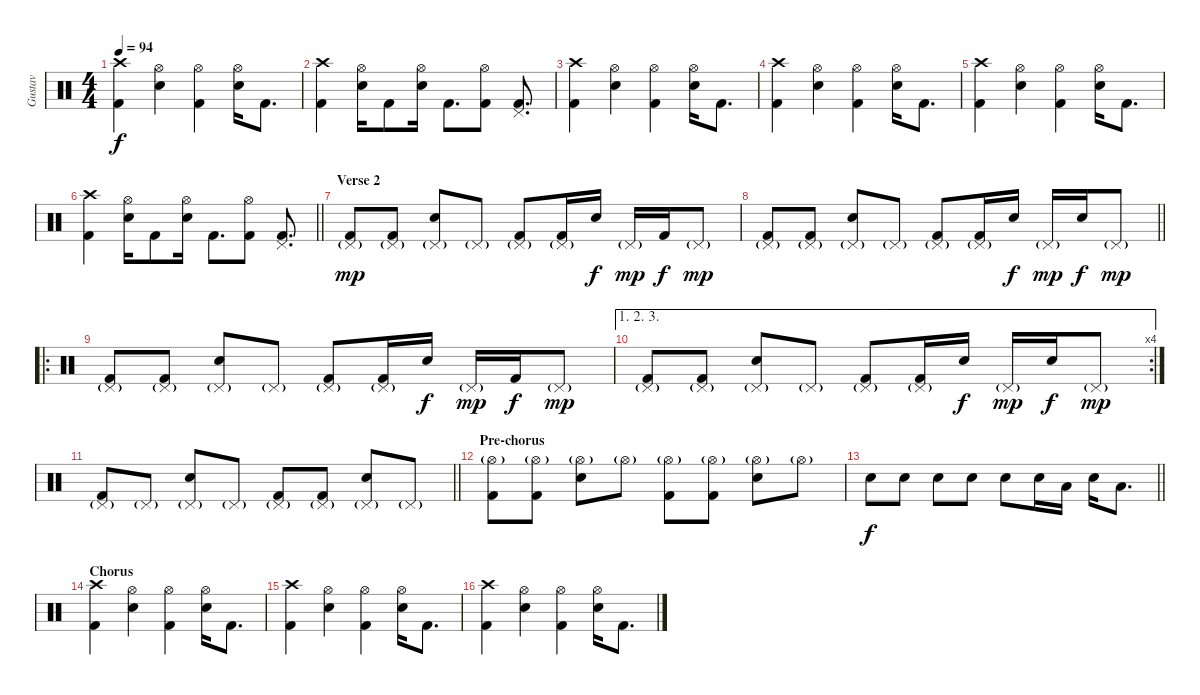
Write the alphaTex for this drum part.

\track ("Gustav" "Gustav") {instrument percussion}
\staff {score}
\articulation defaults
\ts (4 4)
\tempo 94
\clef neutral
\ks c
("Crash high (hit)" "Kick (hit) 2").4{dy f} ("Hi-Hat (open)" "Electric Snare (hit)").4 ("Hi-Hat (open)" "Kick (hit) 2").4 ("Hi-Hat (open)" "Electric Snare (hit)").16 "Kick (hit) 2".8{d} |
("Crash high (hit)" "Kick (hit) 2").4 ("Hi-Hat (open)" "Electric Snare (hit)").16 "Kick (hit) 2".8 ("Hi-Hat (open)" "Electric Snare (hit)").16 "Kick (hit) 2".8{d} ("Hi-Hat (open)" "Kick (hit) 2").8 ("Pedal Hi-Hat (hit)" "Kick (hit) 2").8{d} |
("Crash high (hit)" "Kick (hit) 2").4 ("Hi-Hat (open)" "Electric Snare (hit)").4 ("Hi-Hat (open)" "Kick (hit) 2").4 ("Hi-Hat (open)" "Electric Snare (hit)").16 "Kick (hit) 2".8{d} |
("Crash high (hit)" "Kick (hit) 2").4 ("Hi-Hat (open)" "Electric Snare (hit)").4 ("Hi-Hat (open)" "Kick (hit) 2").4 ("Hi-Hat (open)" "Electric Snare (hit)").16 "Kick (hit) 2".8{d} |
("Crash high (hit)" "Kick (hit) 2").4 ("Hi-Hat (open)" "Electric Snare (hit)").4 ("Hi-Hat (open)" "Kick (hit) 2").4 ("Hi-Hat (open)" "Electric Snare (hit)").16 "Kick (hit) 2".8{d} |
\barLineRight lightlight
("Crash high (hit)" "Kick (hit) 2").4 ("Hi-Hat (open)" "Electric Snare (hit)").16 "Kick (hit) 2".8 ("Hi-Hat (open)" "Electric Snare (hit)").16 "Kick (hit) 2".8{d} ("Hi-Hat (open)" "Kick (hit) 2").8 ("Pedal Hi-Hat (hit)" "Kick (hit) 2").8{d} |
\section ("" "Verse 2")
("Pedal Hi-Hat (hit)"{g} "Kick (hit) 2").8{dy mp} ("Pedal Hi-Hat (hit)"{g} "Kick (hit) 2").8 ("Pedal Hi-Hat (hit)"{g} "Electric Snare (hit)").8 "Pedal Hi-Hat (hit)"{g}.8 ("Pedal Hi-Hat (hit)"{g} "Kick (hit) 2").8 ("Pedal Hi-Hat (hit)"{g} "Kick (hit) 2").16 "Electric Snare (hit)".16{dy f} "Pedal Hi-Hat (hit)"{g}.16{dy mp} "Kick (hit) 2".16{dy f} "Pedal Hi-Hat (hit)"{g}.8{dy mp} |
\barLineRight lightlight
("Pedal Hi-Hat (hit)"{g} "Kick (hit) 2").8 ("Pedal Hi-Hat (hit)"{g} "Kick (hit) 2").8 ("Pedal Hi-Hat (hit)"{g} "Electric Snare (hit)").8 "Pedal Hi-Hat (hit)"{g}.8 ("Pedal Hi-Hat (hit)"{g} "Kick (hit) 2").8 ("Pedal Hi-Hat (hit)"{g} "Kick (hit) 2").16 "Electric Snare (hit)".16{dy f} "Pedal Hi-Hat (hit)"{g}.16{dy mp} "Electric Snare (hit)".16{dy f} "Pedal Hi-Hat (hit)"{g}.8{dy mp} |
\ro
("Pedal Hi-Hat (hit)"{g} "Kick (hit) 2").8 ("Pedal Hi-Hat (hit)"{g} "Kick (hit) 2").8 ("Pedal Hi-Hat (hit)"{g} "Electric Snare (hit)").8 "Pedal Hi-Hat (hit)"{g}.8 ("Pedal Hi-Hat (hit)"{g} "Kick (hit) 2").8 ("Pedal Hi-Hat (hit)"{g} "Kick (hit) 2").16 "Electric Snare (hit)".16{dy f} "Pedal Hi-Hat (hit)"{g}.16{dy mp} "Kick (hit) 2".16{dy f} "Pedal Hi-Hat (hit)"{g}.8{dy mp} |
\ae (1 2 3)
\rc 4
("Pedal Hi-Hat (hit)"{g} "Kick (hit) 2").8 ("Pedal Hi-Hat (hit)"{g} "Kick (hit) 2").8 ("Pedal Hi-Hat (hit)"{g} "Electric Snare (hit)").8 "Pedal Hi-Hat (hit)"{g}.8 ("Pedal Hi-Hat (hit)"{g} "Kick (hit) 2").8 ("Pedal Hi-Hat (hit)"{g} "Kick (hit) 2").16 "Electric Snare (hit)".16{dy f} "Pedal Hi-Hat (hit)"{g}.16{dy mp} "Electric Snare (hit)".16{dy f} "Pedal Hi-Hat (hit)"{g}.8{dy mp} |
\barLineRight lightlight
("Pedal Hi-Hat (hit)"{g} "Kick (hit) 2").8 "Pedal Hi-Hat (hit)"{g}.8 ("Pedal Hi-Hat (hit)"{g} "Electric Snare (hit)").8 "Pedal Hi-Hat (hit)"{g}.8 ("Pedal Hi-Hat (hit)"{g} "Kick (hit) 2").8 ("Pedal Hi-Hat (hit)"{g} "Kick (hit) 2").8 ("Pedal Hi-Hat (hit)"{g} "Electric Snare (hit)").8 "Pedal Hi-Hat (hit)"{g}.8 |
\section ("" "Pre-chorus")
("Hi-Hat (open)"{g} "Kick (hit) 2").8 ("Hi-Hat (open)"{g} "Kick (hit) 2").8 ("Hi-Hat (open)"{g} "Electric Snare (hit)").8 "Hi-Hat (open)"{g}.8 ("Hi-Hat (open)"{g} "Kick (hit) 2").8 ("Hi-Hat (open)"{g} "Kick (hit) 2").8 ("Hi-Hat (open)"{g} "Electric Snare (hit)").8 "Hi-Hat (open)"{g}.8 |
\barLineRight lightlight "Electric Snare (hit)".8{dy f} "Electric Snare (hit)".8 "Electric Snare (hit)".8 "Electric Snare (hit)".8 "Electric Snare (hit)".8 "Electric Snare (hit)".16 "Low Tom (hit)".16 "Electric Snare (hit)".16 "Low Tom (hit)".8{d}
|
\section ("" "Chorus")
("Crash high (hit)" "Kick (hit) 2").4 ("Hi-Hat (open)" "Electric Snare (hit)").4 ("Hi-Hat (open)" "Kick (hit) 2").4 ("Hi-Hat (open)" "Electric Snare (hit)").16 "Kick (hit) 2".8{d} |
("Crash high (hit)" "Kick (hit) 2").4 ("Hi-Hat (open)" "Electric Snare (hit)").4 ("Hi-Hat (open)" "Kick (hit) 2").4 ("Hi-Hat (open)" "Electric Snare (hit)").16 "Kick (hit) 2".8{d} |
("Crash high (hit)" "Kick (hit) 2").4 ("Hi-Hat (open)" "Electric Snare (hit)").4 ("Hi-Hat (open)" "Kick (hit) 2").4 ("Hi-Hat (open)" "Electric Snare (hit)").16 "Kick (hit) 2".8{d}
